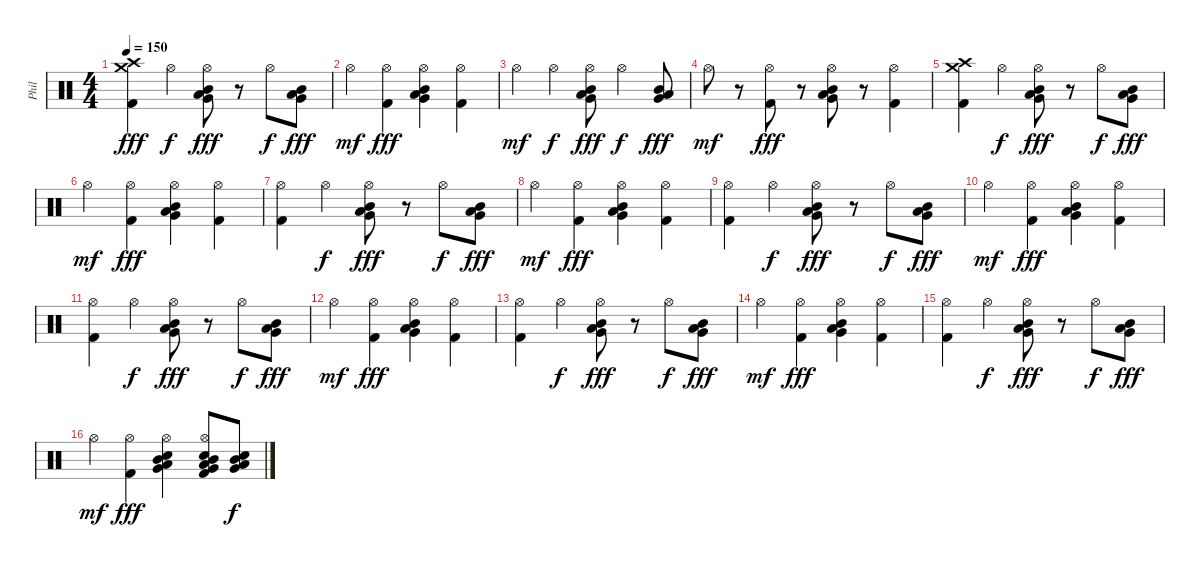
\track ("Phil" "Phil") {instrument percussion}
\staff {score}
\articulation defaults
\ts (4 4)
\tempo 150
\clef neutral
\ks c
("Crash high (hit)" "Crash medium (hit)" "Kick (hit) 2").4{dy fff} "Hi-Hat (open)".4{dy f} ("Hi-Hat (open)" "Mid Tom (hit)" "Low Floor Tom (hit)" "Very Low Tom (hit)").8{dy fff} r.8 "Hi-Hat (open)".8{dy f} ("Very Low Tom (hit)" "Mid Tom (hit)" "Low Floor Tom (hit)").8{dy fff} |
"Hi-Hat (open)".4{dy mf} ("Hi-Hat (open)" "Kick (hit) 2").4{dy fff} ("Hi-Hat (open)" "Mid Tom (hit)" "Very Low Tom (hit)" "Low Floor Tom (hit)").4 ("Hi-Hat (open)" "Kick (hit) 2").4 |
"Hi-Hat (open)".4{dy mf} "Hi-Hat (open)".4{dy f} ("Hi-Hat (open)" "Mid Tom (hit)" "Very Low Tom (hit)" "Low Floor Tom (hit)").8{dy fff} "Hi-Hat (open)".4{dy f} ("Mid Tom (hit)" "Very Low Tom (hit)" "Low Floor Tom (hit)").8{dy fff} |
"Hi-Hat (open)".8{dy mf} r.8 ("Hi-Hat (open)" "Kick (hit) 2").8{dy fff} r.8 ("Hi-Hat (open)" "Very Low Tom (hit)" "Low Floor Tom (hit)" "Mid Tom (hit)").8 r.8 ("Hi-Hat (open)" "Kick (hit) 2").4 |
("Crash high (hit)" "Crash medium (hit)" "Kick (hit) 2").4 "Hi-Hat (open)".4{dy f} ("Hi-Hat (open)" "Mid Tom (hit)" "Low Floor Tom (hit)" "Very Low Tom (hit)").8{dy fff} r.8 "Hi-Hat (open)".8{dy f} ("Very Low Tom (hit)" "Mid Tom (hit)" "Low Floor Tom (hit)").8{dy fff} |
"Hi-Hat (open)".4{dy mf} ("Hi-Hat (open)" "Kick (hit) 2").4{dy fff} ("Hi-Hat (open)" "Mid Tom (hit)" "Very Low Tom (hit)" "Low Floor Tom (hit)").4 ("Hi-Hat (open)" "Kick (hit) 2").4 |
("Hi-Hat (open)" "Kick (hit) 2").4 "Hi-Hat (open)".4{dy f} ("Hi-Hat (open)" "Mid Tom (hit)" "Low Floor Tom (hit)" "Very Low Tom (hit)").8{dy fff} r.8 "Hi-Hat (open)".8{dy f} ("Very Low Tom (hit)" "Mid Tom (hit)" "Low Floor Tom (hit)").8{dy fff} |
"Hi-Hat (open)".4{dy mf} ("Hi-Hat (open)" "Kick (hit) 2").4{dy fff} ("Hi-Hat (open)" "Mid Tom (hit)" "Very Low Tom (hit)" "Low Floor Tom (hit)").4 ("Hi-Hat (open)" "Kick (hit) 2").4 |
("Hi-Hat (open)" "Kick (hit) 2").4 "Hi-Hat (open)".4{dy f} ("Hi-Hat (open)" "Mid Tom (hit)" "Low Floor Tom (hit)" "Very Low Tom (hit)").8{dy fff} r.8 "Hi-Hat (open)".8{dy f} ("Very Low Tom (hit)" "Mid Tom (hit)" "Low Floor Tom (hit)").8{dy fff} |
"Hi-Hat (open)".4{dy mf} ("Hi-Hat (open)" "Kick (hit) 2").4{dy fff} ("Hi-Hat (open)" "Mid Tom (hit)" "Very Low Tom (hit)" "Low Floor Tom (hit)").4 ("Hi-Hat (open)" "Kick (hit) 2").4 |
("Hi-Hat (open)" "Kick (hit) 2").4 "Hi-Hat (open)".4{dy f} ("Hi-Hat (open)" "Mid Tom (hit)" "Low Floor Tom (hit)" "Very Low Tom (hit)").8{dy fff} r.8 "Hi-Hat (open)".8{dy f} ("Very Low Tom (hit)" "Mid Tom (hit)" "Low Floor Tom (hit)").8{dy fff} |
"Hi-Hat (open)".4{dy mf} ("Hi-Hat (open)" "Kick (hit) 2").4{dy fff} ("Hi-Hat (open)" "Mid Tom (hit)" "Very Low Tom (hit)" "Low Floor Tom (hit)").4 ("Hi-Hat (open)" "Kick (hit) 2").4 |
("Hi-Hat (open)" "Kick (hit) 2").4 "Hi-Hat (open)".4{dy f} ("Hi-Hat (open)" "Mid Tom (hit)" "Low Floor Tom (hit)" "Very Low Tom (hit)").8{dy fff} r.8 "Hi-Hat (open)".8{dy f} ("Very Low Tom (hit)" "Mid Tom (hit)" "Low Floor Tom (hit)").8{dy fff} |
"Hi-Hat (open)".4{dy mf} ("Hi-Hat (open)" "Kick (hit) 2").4{dy fff} ("Hi-Hat (open)" "Mid Tom (hit)" "Very Low Tom (hit)" "Low Floor Tom (hit)").4 ("Hi-Hat (open)" "Kick (hit) 2").4 |
("Hi-Hat (open)" "Kick (hit) 2").4 "Hi-Hat (open)".4{dy f} ("Hi-Hat (open)" "Mid Tom (hit)" "Low Floor Tom (hit)" "Very Low Tom (hit)").8{dy fff} r.8 "Hi-Hat (open)".8{dy f} ("Very Low Tom (hit)" "Mid Tom (hit)" "Low Floor Tom (hit)").8{dy fff} |
"Hi-Hat (open)".4{dy mf} ("Hi-Hat (open)" "Kick (hit) 2").4{dy fff} ("Hi-Hat (open)" "Mid Tom (hit)" "Very Low Tom (hit)" "Low Floor Tom (hit)" "Electric Snare (hit)").4 ("Hi-Hat (open)" "Mid Tom (hit)" "Very Low Tom (hit)" "Low Floor Tom (hit)" "Electric Snare (hit)" "Kick (hit) 2").8 ("Mid Tom (hit)" "Very Low Tom (hit)" "Low Floor Tom (hit)" "Electric Snare (hit)").8{dy f}
